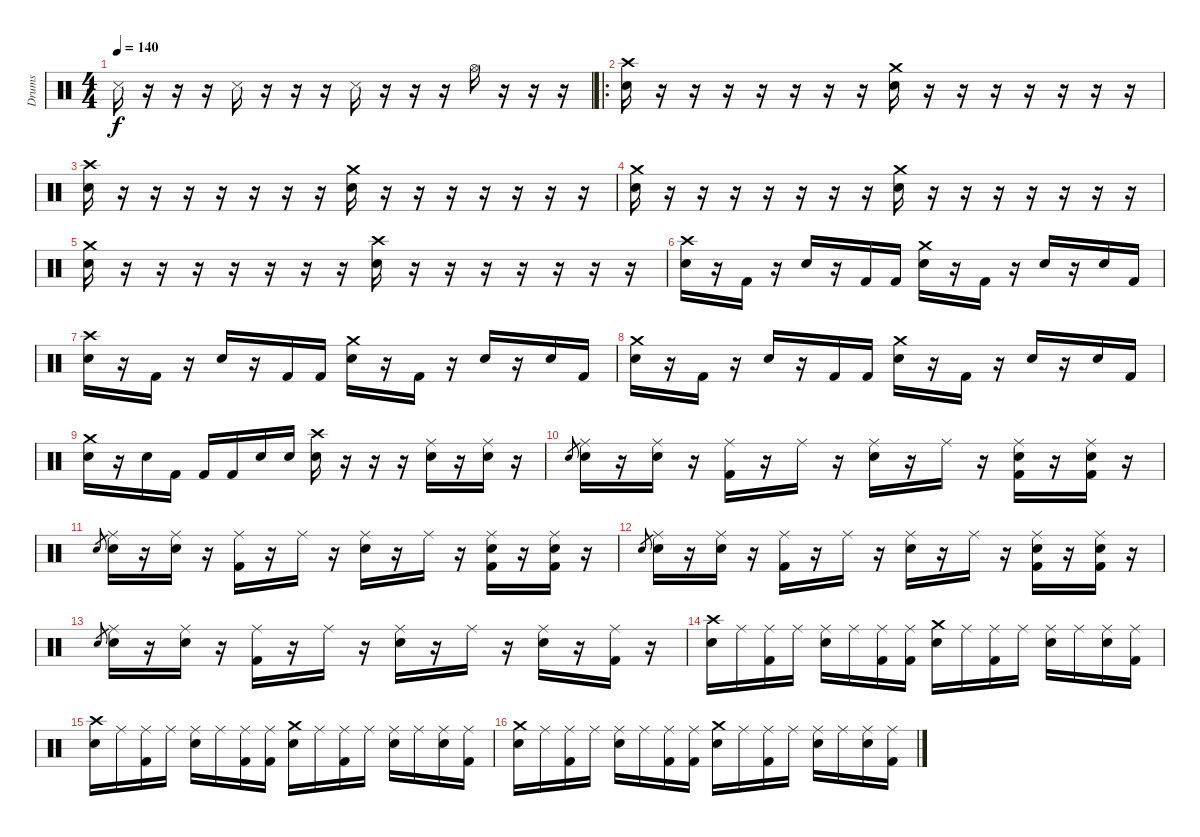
\track ("Drums" "Drums") {instrument percussion}
\staff {score}
\articulation defaults
\ts (4 4)
\tempo 140
\clef neutral
\ks c "Snare (side stick) 3".16{dy f}
r.16 r.16 r.16 "Snare (side stick) 3".16 r.16 r.16 r.16 "Snare (side stick) 3".16 r.16 r.16 r.16 "Hi-Hat (open)".16 r.16 r.16 r.16 |
\ro
("Crash high (hit)" "Snare (hit) 2").16 r.16 r.16 r.16 r.16 r.16 r.16 r.16 ("Crash medium (hit)" "Snare (hit) 2").16 r.16 r.16 r.16 r.16 r.16 r.16 r.16 |
("Crash high (hit)" "Snare (hit) 2").16 r.16 r.16 r.16 r.16 r.16 r.16 r.16 ("Crash medium (hit)" "Snare (hit) 2").16 r.16 r.16 r.16 r.16 r.16 r.16 r.16 |
("Crash medium (hit)" "Snare (hit) 2").16 r.16 r.16 r.16 r.16 r.16 r.16 r.16 ("Crash medium (hit)" "Snare (hit) 2").16 r.16 r.16 r.16 r.16 r.16 r.16 r.16 |
("Crash medium (hit)" "Snare (hit) 2").16 r.16 r.16 r.16 r.16 r.16 r.16 r.16 ("Crash high (hit)" "Snare (hit) 2").16 r.16 r.16 r.16 r.16 r.16 r.16 r.16 |
("Crash high (hit)" "Snare (hit) 2").16 r.16 "Kick (hit) 2".16 r.16 "Snare (hit) 2".16 r.16 "Kick (hit) 2".16 "Kick (hit) 2".16 ("Crash medium (hit)" "Snare (hit) 2").16 r.16 "Kick (hit) 2".16 r.16 "Snare (hit) 2".16 r.16 "Snare (hit) 2".16 "Kick (hit) 2".16 |
("Crash high (hit)" "Snare (hit) 2").16 r.16 "Kick (hit) 2".16 r.16 "Snare (hit) 2".16 r.16 "Kick (hit) 2".16 "Kick (hit) 2".16 ("Crash medium (hit)" "Snare (hit) 2").16 r.16 "Kick (hit) 2".16 r.16 "Snare (hit) 2".16 r.16 "Snare (hit) 2".16 "Kick (hit) 2".16 |
("Crash medium (hit)" "Snare (hit) 2").16 r.16 "Kick (hit) 2".16 r.16 "Snare (hit) 2".16 r.16 "Kick (hit) 2".16 "Kick (hit) 2".16 ("Crash medium (hit)" "Snare (hit) 2").16 r.16 "Kick (hit) 2".16 r.16 "Snare (hit) 2".16 r.16 "Snare (hit) 2".16 "Kick (hit) 2".16 |
("Crash medium (hit)" "Snare (hit) 2").16 r.16 "Snare (hit) 2".16 "Kick (hit) 2".16 "Kick (hit) 2".16 "Kick (hit) 2".16 "Snare (hit) 2".16 "Snare (hit) 2".16 ("Crash high (hit)" "Snare (hit) 2").16 r.16 r.16 r.16 ("Ride (middle)" "Snare (hit) 2").16 r.16 ("Ride (middle)" "Snare (hit) 2").16 r.16 |
"Snare (hit) 2".8{gr} ("Ride (middle)" "Snare (hit) 2").16 r.16 ("Ride (middle)" "Snare (hit) 2").16 r.16 ("Ride (middle)" "Kick (hit) 2").16 r.16 "Ride (middle)".16 r.16 ("Ride (middle)" "Snare (hit) 2").16 r.16 "Ride (middle)".16 r.16 ("Ride (middle)" "Snare (hit) 2" "Kick (hit) 2").16 r.16 ("Ride (middle)" "Snare (hit) 2" "Kick (hit) 2").16 r.16 |
"Snare (hit) 2".8{gr} ("Ride (middle)" "Snare (hit) 2").16 r.16 ("Ride (middle)" "Snare (hit) 2").16 r.16 ("Ride (middle)" "Kick (hit) 2").16 r.16 "Ride (middle)".16 r.16 ("Ride (middle)" "Snare (hit) 2").16 r.16 "Ride (middle)".16 r.16 ("Ride (middle)" "Snare (hit) 2" "Kick (hit) 2").16 r.16 ("Ride (middle)" "Snare (hit) 2" "Kick (hit) 2").16 r.16 |
"Snare (hit) 2".8{gr} ("Ride (middle)" "Snare (hit) 2").16 r.16 ("Ride (middle)" "Snare (hit) 2").16 r.16 ("Ride (middle)" "Kick (hit) 2").16 r.16 "Ride (middle)".16 r.16 ("Ride (middle)" "Snare (hit) 2").16 r.16 "Ride (middle)".16 r.16 ("Ride (middle)" "Snare (hit) 2" "Kick (hit) 2").16 r.16 ("Ride (middle)" "Snare (hit) 2" "Kick (hit) 2").16 r.16 |
"Snare (hit) 2".8{gr} ("Ride (middle)" "Snare (hit) 2").16 r.16 ("Ride (middle)" "Snare (hit) 2").16 r.16 ("Ride (middle)" "Kick (hit) 2").16 r.16 "Ride (middle)".16 r.16 ("Ride (middle)" "Snare (hit) 2").16 r.16 "Ride (middle)".16 r.16 ("Ride (middle)" "Snare (hit) 2").16 r.16 ("Ride (middle)" "Kick (hit) 2").16 r.16 |
("Crash high (hit)" "Snare (hit) 2").16 "Ride (middle)".16 ("Ride (middle)" "Kick (hit) 2").16 "Ride (middle)".16 ("Ride (middle)" "Snare (hit) 2").16 "Ride (middle)".16 ("Ride (middle)" "Kick (hit) 2").16 ("Ride (middle)" "Kick (hit) 2").16 ("Crash medium (hit)" "Snare (hit) 2").16 "Ride (middle)".16 ("Ride (middle)" "Kick (hit) 2").16 "Ride (middle)".16 ("Ride (middle)" "Snare (hit) 2").16 "Ride (middle)".16 ("Ride (middle)" "Snare (hit) 2").16 ("Ride (middle)" "Kick (hit) 2").16 |
("Crash high (hit)" "Snare (hit) 2").16 "Ride (middle)".16 ("Ride (middle)" "Kick (hit) 2").16 "Ride (middle)".16 ("Ride (middle)" "Snare (hit) 2").16 "Ride (middle)".16 ("Ride (middle)" "Kick (hit) 2").16 ("Ride (middle)" "Kick (hit) 2").16 ("Crash medium (hit)" "Snare (hit) 2").16 "Ride (middle)".16 ("Ride (middle)" "Kick (hit) 2").16 "Ride (middle)".16 ("Ride (middle)" "Snare (hit) 2").16 "Ride (middle)".16 ("Ride (middle)" "Snare (hit) 2").16 ("Ride (middle)" "Kick (hit) 2").16 |
("Crash medium (hit)" "Snare (hit) 2").16 "Ride (middle)".16 ("Ride (middle)" "Kick (hit) 2").16 "Ride (middle)".16 ("Ride (middle)" "Snare (hit) 2").16 "Ride (middle)".16 ("Ride (middle)" "Kick (hit) 2").16 ("Ride (middle)" "Kick (hit) 2").16 ("Crash medium (hit)" "Snare (hit) 2").16 "Ride (middle)".16 ("Ride (middle)" "Kick (hit) 2").16 "Ride (middle)".16 ("Ride (middle)" "Snare (hit) 2").16 "Ride (middle)".16 ("Ride (middle)" "Snare (hit) 2").16 ("Ride (middle)" "Kick (hit) 2").16
